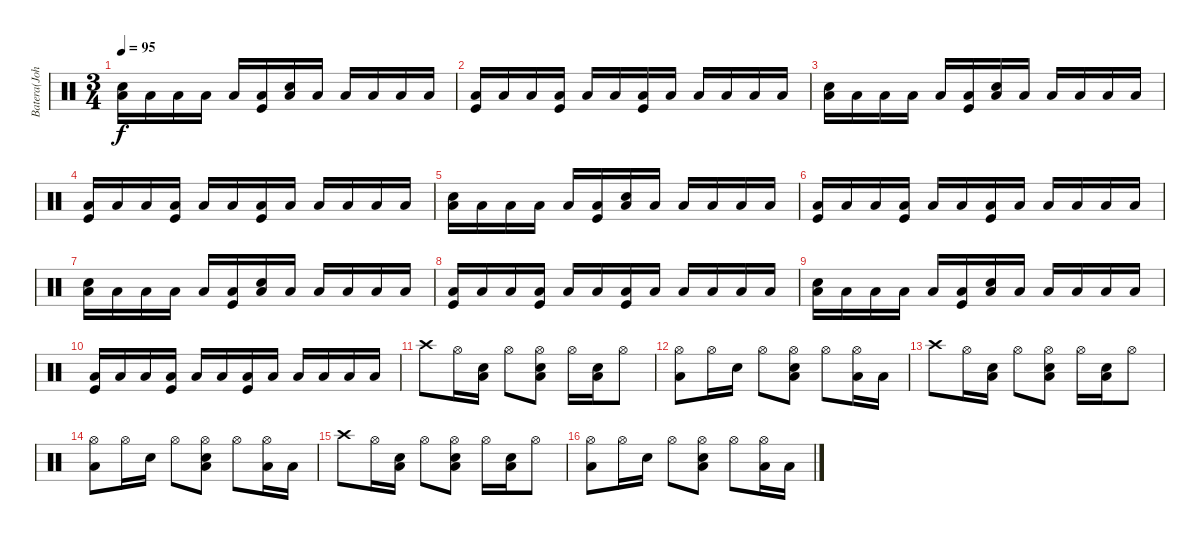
\track ("Batera(John)" "Batera(Joh") {instrument percussion}
\staff {score}
\articulation defaults
\ts (3 4)
\tempo 95
\clef neutral
\ks c
("Snare (hit) 2" "Low Tom (hit)").16{dy f} "Low Tom (hit)".16 "Low Tom (hit)".16 "Low Tom (hit)".16 "Low Tom (hit)".16 ("Kick (hit)" "Low Tom (hit)").16 ("Snare (hit) 2" "Low Tom (hit)").16 "Low Tom (hit)".16 "Low Tom (hit)".16 "Low Tom (hit)".16 "Low Tom (hit)".16 "Low Tom (hit)".16 |
("Kick (hit)" "Low Tom (hit)").16 "Low Tom (hit)".16 "Low Tom (hit)".16 ("Kick (hit)" "Low Tom (hit)").16 "Low Tom (hit)".16 "Low Tom (hit)".16 ("Kick (hit)" "Low Tom (hit)").16 "Low Tom (hit)".16 "Low Tom (hit)".16 "Low Tom (hit)".16 "Low Tom (hit)".16 "Low Tom (hit)".16 |
("Snare (hit) 2" "Low Tom (hit)").16 "Low Tom (hit)".16 "Low Tom (hit)".16 "Low Tom (hit)".16 "Low Tom (hit)".16 ("Kick (hit)" "Low Tom (hit)").16 ("Snare (hit) 2" "Low Tom (hit)").16 "Low Tom (hit)".16 "Low Tom (hit)".16 "Low Tom (hit)".16 "Low Tom (hit)".16 "Low Tom (hit)".16 |
("Kick (hit)" "Low Tom (hit)").16 "Low Tom (hit)".16 "Low Tom (hit)".16 ("Kick (hit)" "Low Tom (hit)").16 "Low Tom (hit)".16 "Low Tom (hit)".16 ("Kick (hit)" "Low Tom (hit)").16 "Low Tom (hit)".16 "Low Tom (hit)".16 "Low Tom (hit)".16 "Low Tom (hit)".16 "Low Tom (hit)".16 |
("Snare (hit) 2" "Low Tom (hit)").16 "Low Tom (hit)".16 "Low Tom (hit)".16 "Low Tom (hit)".16 "Low Tom (hit)".16 ("Kick (hit)" "Low Tom (hit)").16 ("Snare (hit) 2" "Low Tom (hit)").16 "Low Tom (hit)".16 "Low Tom (hit)".16 "Low Tom (hit)".16 "Low Tom (hit)".16 "Low Tom (hit)".16 |
("Kick (hit)" "Low Tom (hit)").16 "Low Tom (hit)".16 "Low Tom (hit)".16 ("Kick (hit)" "Low Tom (hit)").16 "Low Tom (hit)".16 "Low Tom (hit)".16 ("Kick (hit)" "Low Tom (hit)").16 "Low Tom (hit)".16 "Low Tom (hit)".16 "Low Tom (hit)".16 "Low Tom (hit)".16 "Low Tom (hit)".16 |
("Snare (hit) 2" "Low Tom (hit)").16 "Low Tom (hit)".16 "Low Tom (hit)".16 "Low Tom (hit)".16 "Low Tom (hit)".16 ("Kick (hit)" "Low Tom (hit)").16 ("Snare (hit) 2" "Low Tom (hit)").16 "Low Tom (hit)".16 "Low Tom (hit)".16 "Low Tom (hit)".16 "Low Tom (hit)".16 "Low Tom (hit)".16 |
("Kick (hit)" "Low Tom (hit)").16 "Low Tom (hit)".16 "Low Tom (hit)".16 ("Kick (hit)" "Low Tom (hit)").16 "Low Tom (hit)".16 "Low Tom (hit)".16 ("Kick (hit)" "Low Tom (hit)").16 "Low Tom (hit)".16 "Low Tom (hit)".16 "Low Tom (hit)".16 "Low Tom (hit)".16 "Low Tom (hit)".16 |
("Snare (hit) 2" "Low Tom (hit)").16 "Low Tom (hit)".16 "Low Tom (hit)".16 "Low Tom (hit)".16 "Low Tom (hit)".16 ("Kick (hit)" "Low Tom (hit)").16 ("Snare (hit) 2" "Low Tom (hit)").16 "Low Tom (hit)".16 "Low Tom (hit)".16 "Low Tom (hit)".16 "Low Tom (hit)".16 "Low Tom (hit)".16 |
("Kick (hit)" "Low Tom (hit)").16 "Low Tom (hit)".16 "Low Tom (hit)".16 ("Kick (hit)" "Low Tom (hit)").16 "Low Tom (hit)".16 "Low Tom (hit)".16 ("Kick (hit)" "Low Tom (hit)").16 "Low Tom (hit)".16 "Low Tom (hit)".16 "Low Tom (hit)".16 "Low Tom (hit)".16 "Low Tom (hit)".16 |
"Crash high (hit)".8 "Hi-Hat (open)".16 ("Snare (hit) 2" "Low Tom (hit)").16 "Hi-Hat (open)".8 ("Hi-Hat (open)" "Snare (hit) 2" "Low Tom (hit)").8 "Hi-Hat (open)".16 ("Snare (hit) 2" "Low Tom (hit)").16 "Hi-Hat (open)".8 |
("Hi-Hat (open)" "Low Tom (hit)").8 "Hi-Hat (open)".16 "Snare (hit) 2".16 "Hi-Hat (open)".8 ("Hi-Hat (open)" "Snare (hit) 2" "Low Tom (hit)").8 "Hi-Hat (open)".8 ("Hi-Hat (open)" "Low Tom (hit)").16 "Low Tom (hit)".16 |
"Crash high (hit)".8 "Hi-Hat (open)".16 ("Snare (hit) 2" "Low Tom (hit)").16 "Hi-Hat (open)".8 ("Hi-Hat (open)" "Snare (hit) 2" "Low Tom (hit)").8 "Hi-Hat (open)".16 ("Snare (hit) 2" "Low Tom (hit)").16 "Hi-Hat (open)".8 |
("Hi-Hat (open)" "Low Tom (hit)").8 "Hi-Hat (open)".16 "Snare (hit) 2".16 "Hi-Hat (open)".8 ("Hi-Hat (open)" "Snare (hit) 2" "Low Tom (hit)").8 "Hi-Hat (open)".8 ("Hi-Hat (open)" "Low Tom (hit)").16 "Low Tom (hit)".16 |
"Crash high (hit)".8 "Hi-Hat (open)".16 ("Snare (hit) 2" "Low Tom (hit)").16 "Hi-Hat (open)".8 ("Hi-Hat (open)" "Snare (hit) 2" "Low Tom (hit)").8 "Hi-Hat (open)".16 ("Snare (hit) 2" "Low Tom (hit)").16 "Hi-Hat (open)".8 |
("Hi-Hat (open)" "Low Tom (hit)").8 "Hi-Hat (open)".16 "Snare (hit) 2".16 "Hi-Hat (open)".8 ("Hi-Hat (open)" "Snare (hit) 2" "Low Tom (hit)").8 "Hi-Hat (open)".8 ("Hi-Hat (open)" "Low Tom (hit)").16 "Low Tom (hit)".16
